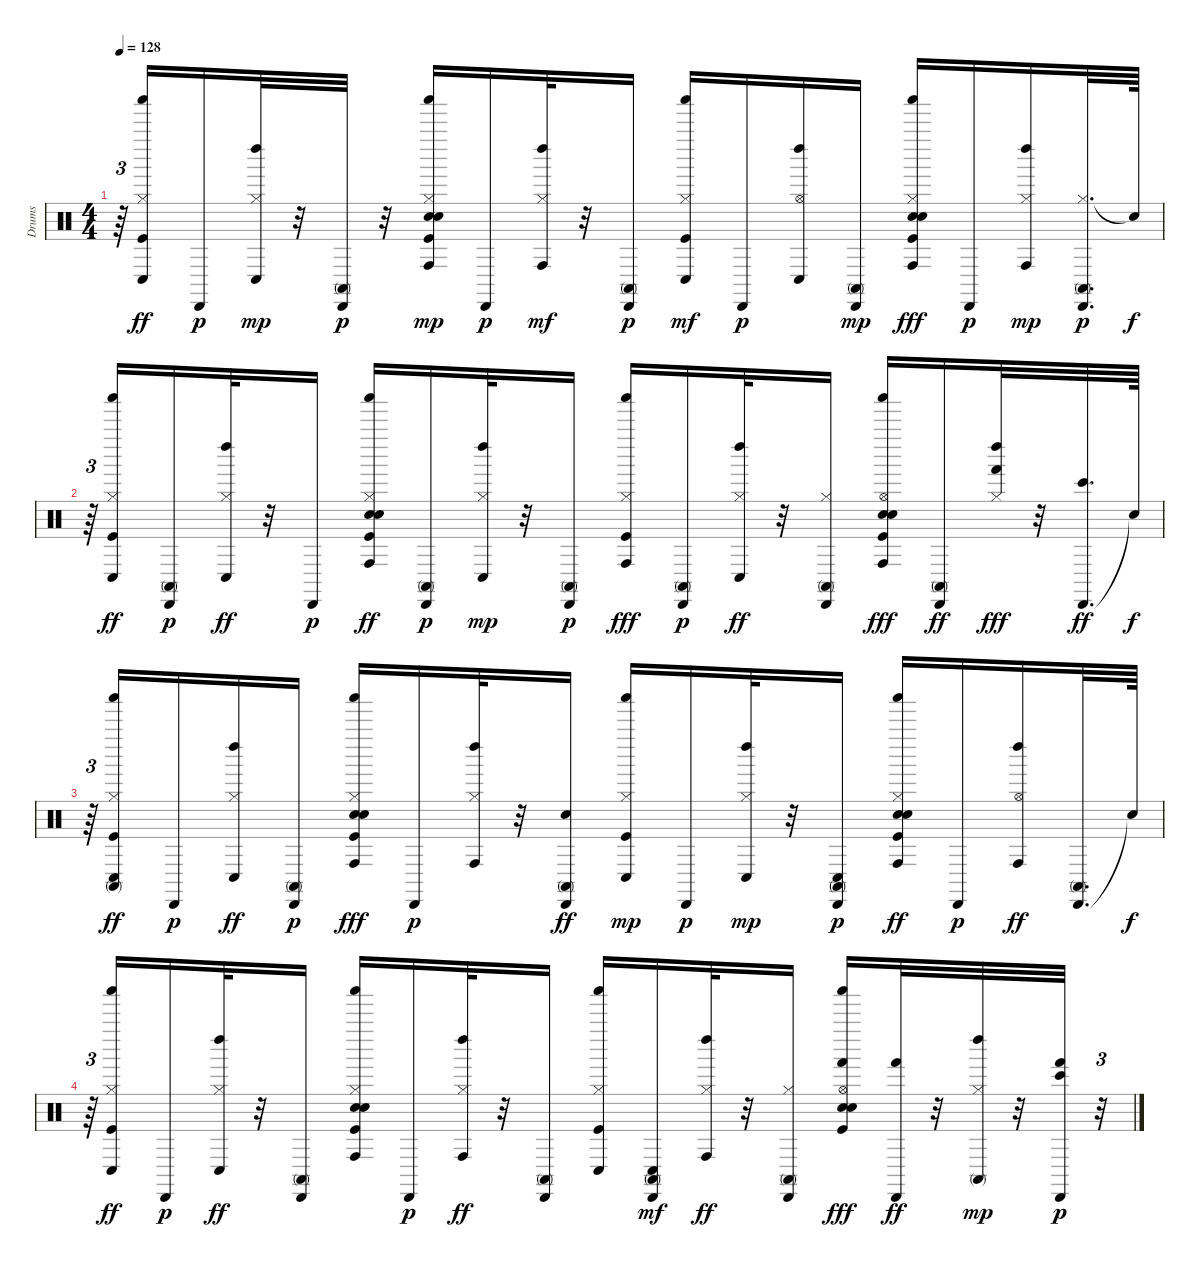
\track ("Drums" "Drums") {instrument percussion}
\staff {score}
\articulation defaults
\ts (4 4)
\tempo 128
\clef neutral
\ks c
r.64{tu (3 2) dy f} ("Kick (hit)" "Hi-Hat (closed)" "Shaker (hit)" "Conga low (hit)").16{dy ff} "Cabasa (hit)".16{dy p} ("Hi-Hat (closed)" "Left Maraca (hit)" "Conga low (hit)").32{dy mp} r.32 ("Cabasa (hit)" "Conga high (mute)").32{dy p} r.32 ("Kick (hit)" "Snare (hit) 2" "Hand Clap (hit)" "Hi-Hat (closed)" "Shaker (hit)" "Conga high (hit)").16{dy mp} "Cabasa (hit)".16{dy p} ("Hi-Hat (closed)" "Left Maraca (hit)" "Conga high (hit)").32{dy mf} r.32 ("Cabasa (hit)" "Conga high (mute)").16{dy p} ("Kick (hit)" "Hi-Hat (closed)" "Shaker (hit)" "Conga low (hit)").16{dy mf} "Cabasa (hit)".16{dy p} ("Hi-Hat (open)" "Left Maraca (hit)" "Conga low (hit)").16 ("Cabasa (hit)" "Conga high (mute)").16{dy mp} ("Kick (hit)" "Snare (hit) 2" "Hand Clap (hit)" "Hi-Hat (closed)" "Shaker (hit)" "Conga high (hit)").16{dy fff} "Cabasa (hit)".16{dy p} ("Hi-Hat (closed)" "Left Maraca (hit)" "Conga high (hit)").16{dy mp} ("Hi-Hat (closed)" "Cabasa (hit)" "Conga high (mute)").32{d dy p} "Snare (hit)"{t}.64{dy f} |
r.64{tu (3 2)} ("Kick (hit)" "Hi-Hat (closed)" "Shaker (hit)" "Conga low (hit)").16{dy ff} ("Cabasa (hit)" "Conga high (mute)").16{dy p} ("Hi-Hat (closed)" "Left Maraca (hit)" "Conga low (hit)").32{dy ff} r.32 "Cabasa (hit)".16{dy p} ("Kick (hit)" "Snare (hit) 2" "Hand Clap (hit)" "Hi-Hat (closed)" "Shaker (hit)" "Conga high (hit)").16{dy ff} ("Cabasa (hit)" "Conga high (mute)").16{dy p} ("Hi-Hat (closed)" "Left Maraca (hit)" "Conga low (hit)").32{dy mp} r.32 ("Cabasa (hit)" "Conga high (mute)").16{dy p} ("Kick (hit)" "Hi-Hat (closed)" "Shaker (hit)" "Conga high (hit)").16{dy fff} ("Cabasa (hit)" "Conga high (mute)").16{dy p} ("Hi-Hat (closed)" "Left Maraca (hit)" "Conga low (hit)").32{dy ff} r.32 ("Hi-Hat (closed)" "Cabasa (hit)" "Conga high (mute)").16 ("Kick (hit)" "Snare (hit) 2" "Hand Clap (hit)" "Hi-Hat (open)" "Shaker (hit)" "Conga high (hit)").16{dy fff} ("Cabasa (hit)" "Conga high (mute)").16{dy ff} ("Hi-Hat (closed)" "Left Maraca (hit)" "Hand (hit)").32{dy fff} r.32 ("Cabasa (hit)" "Bongo High (hit)").32{d dy ff} "Snare (hit)"{t}.64{dy f} |
r.64{tu (3 2)} ("Kick (hit)" "Hi-Hat (closed)" "Shaker (hit)" "Conga low (hit)" "Conga high (mute)").16{dy ff} "Cabasa (hit)".16{dy p} ("Hi-Hat (closed)" "Left Maraca (hit)" "Conga low (hit)").16{dy ff} ("Cabasa (hit)" "Conga high (mute)").16{dy p} ("Kick (hit)" "Snare (hit) 2" "Hand Clap (hit)" "Hi-Hat (closed)" "Shaker (hit)" "Conga high (hit)").16{dy fff} "Cabasa (hit)".16{dy p} ("Hi-Hat (closed)" "Left Maraca (hit)" "Conga high (hit)").32 r.32 ("Snare (hit) 2" "Cabasa (hit)" "Conga high (mute)").16{dy ff} ("Kick (hit)" "Hi-Hat (closed)" "Shaker (hit)" "Conga low (hit)").16{dy mp} "Cabasa (hit)".16{dy p} ("Hi-Hat (closed)" "Left Maraca (hit)" "Conga low (hit)").32{dy mp} r.32 ("Cabasa (hit)" "Conga high (mute)" "Conga low (hit)").16{dy p} ("Kick (hit)" "Snare (hit) 2" "Hand Clap (hit)" "Hi-Hat (closed)" "Shaker (hit)" "Conga high (hit)").16{dy ff} "Cabasa (hit)".16{dy p} ("Hi-Hat (open)" "Left Maraca (hit)" "Conga high (hit)").16{dy ff} ("Cabasa (hit)" "Conga high (mute)").32{d} "Snare (hit)"{t}.64{dy f} |
r.64{tu (3 2)} ("Kick (hit)" "Hi-Hat (closed)" "Shaker (hit)" "Conga low (hit)").16{dy ff} "Cabasa (hit)".16{dy p} ("Hi-Hat (closed)" "Left Maraca (hit)" "Conga low (hit)").32{dy ff} r.32 ("Cabasa (hit)" "Conga high (mute)").16 ("Kick (hit)" "Snare (hit) 2" "Hand Clap (hit)" "Hi-Hat (closed)" "Shaker (hit)" "Conga high (hit)").16 "Cabasa (hit)".16{dy p} ("Hi-Hat (closed)" "Left Maraca (hit)" "Conga high (hit)").32{dy ff} r.32 ("Cabasa (hit)" "Conga high (mute)").16 ("Kick (hit)" "Hi-Hat (closed)" "Shaker (hit)" "Conga low (hit)").16 ("Cabasa (hit)" "Conga high (mute)" "Conga low (hit)").16{dy mf} ("Hi-Hat (closed)" "Left Maraca (hit)" "Conga high (hit)").32{dy ff} r.32 ("Hi-Hat (closed)" "Cabasa (hit)" "Conga high (mute)").16 ("Kick (hit)" "Snare (hit) 2" "Hand Clap (hit)" "Hi-Hat (open)" "Shaker (hit)" "Hand (hit)").16{dy fff} ("Cabasa (hit)" "Hand (hit)").32{dy ff} r.32 ("Hi-Hat (closed)" "Left Maraca (hit)" "Conga high (mute)").32{dy mp} r.32 ("Cabasa (hit)" "Hand (hit)" "Bongo High (hit)").32{dy p} r.32{tu (3 2)}
